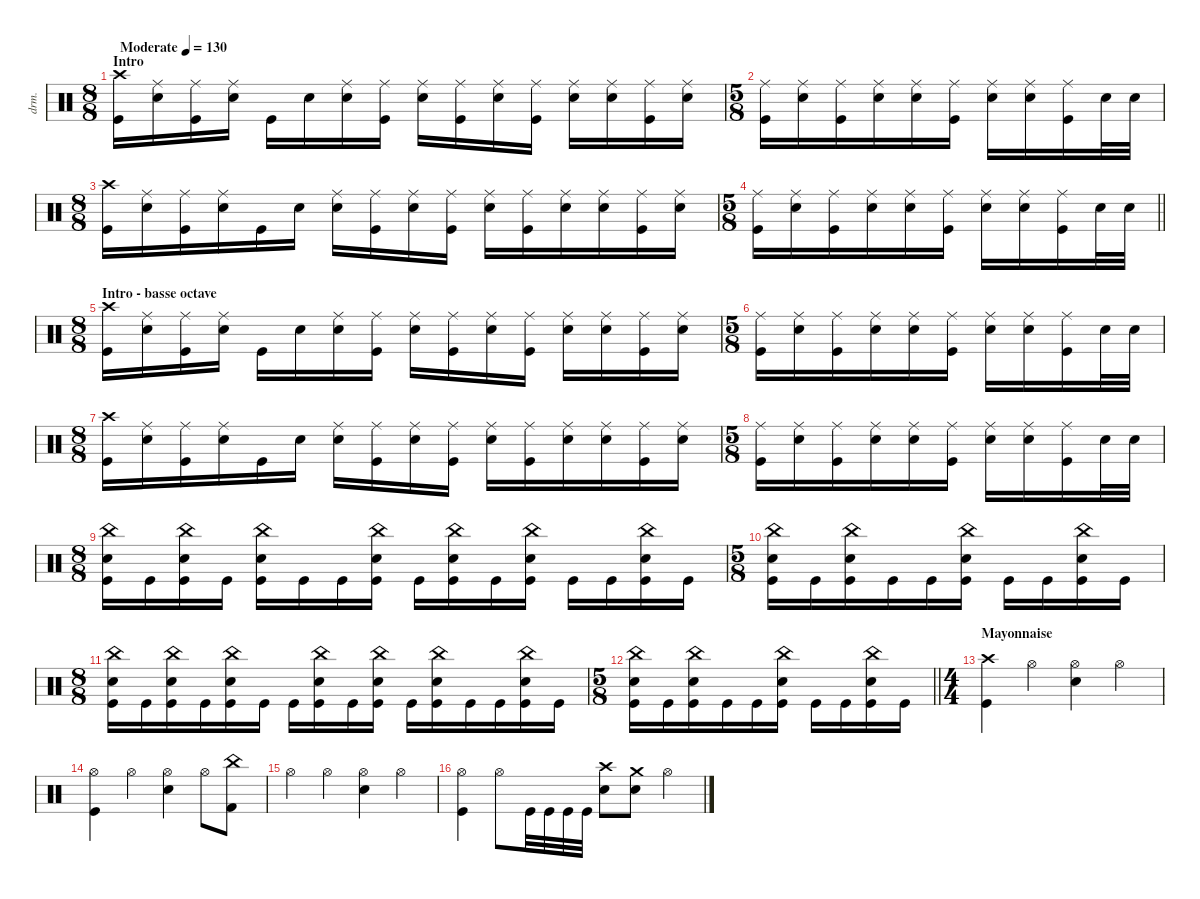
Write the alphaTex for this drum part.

\defaultSystemsLayout 4
\hideDynamics
\bracketExtendMode nobrackets
\otherSystemsTrackNameOrientation horizontal
\track ("Manouche" "drm.") {instrument percussion}
\staff {score}
\articulation defaults
\ts (8 8)
\beaming (8 2 2 2 2)
\section ("" "Intro")
\tempo (130 "Moderate")
\clef neutral
\ks c
("Crash high (hit)" "Kick (hit)").16{dy f} ("Snare (hit) 2" "Ride (middle)").16 ("Kick (hit)" "Ride (middle)").16 ("Snare (hit) 2" "Ride (middle)").16 "Kick (hit)".16 "Snare (hit) 2".16 ("Snare (hit) 2" "Ride (middle)").16 ("Kick (hit)" "Ride (middle)").16 ("Snare (hit) 2" "Ride (middle)").16 ("Kick (hit)" "Ride (middle)").16 ("Snare (hit) 2" "Ride (middle)").16 ("Ride (middle)" "Kick (hit)").16 ("Snare (hit) 2" "Ride (middle)").16 ("Snare (hit) 2" "Ride (middle)").16 ("Kick (hit)" "Ride (middle)").16 ("Snare (hit) 2" "Ride (middle)").16 |
\ts (5 8)
\beaming (8 3 2)
("Kick (hit)" "Ride (middle)").16 ("Snare (hit) 2" "Ride (middle)").16 ("Kick (hit)" "Ride (middle)").16 ("Snare (hit) 2" "Ride (middle)").16 ("Snare (hit) 2" "Ride (middle)").16 ("Kick (hit)" "Ride (middle)").16 ("Snare (hit) 2" "Ride (middle)").16 ("Snare (hit) 2" "Ride (middle)").16 ("Kick (hit)" "Ride (middle)").16 "Snare (hit) 2".32 "Snare (hit) 2".32 |
\ts (8 8)
\beaming (8 3 2 3)
("Crash high (hit)" "Kick (hit)").16 ("Snare (hit) 2" "Ride (middle)").16 ("Kick (hit)" "Ride (middle)").16 ("Snare (hit) 2" "Ride (middle)").16 "Kick (hit)".16 "Snare (hit) 2".16 ("Snare (hit) 2" "Ride (middle)").16 ("Kick (hit)" "Ride (middle)").16 ("Snare (hit) 2" "Ride (middle)").16 ("Kick (hit)" "Ride (middle)").16 ("Snare (hit) 2" "Ride (middle)").16 ("Ride (middle)" "Kick (hit)").16 ("Snare (hit) 2" "Ride (middle)").16 ("Snare (hit) 2" "Ride (middle)").16 ("Kick (hit)" "Ride (middle)").16 ("Snare (hit) 2" "Ride (middle)").16 |
\ts (5 8)
\beaming (8 3 2)
\barLineRight lightlight
("Kick (hit)" "Ride (middle)").16 ("Snare (hit) 2" "Ride (middle)").16 ("Kick (hit)" "Ride (middle)").16 ("Snare (hit) 2" "Ride (middle)").16 ("Snare (hit) 2" "Ride (middle)").16 ("Kick (hit)" "Ride (middle)").16 ("Snare (hit) 2" "Ride (middle)").16 ("Snare (hit) 2" "Ride (middle)").16 ("Kick (hit)" "Ride (middle)").16 "Snare (hit) 2".32 "Snare (hit) 2".32 |
\ts (8 8)
\beaming (8 2 2 2 2)
\section ("" "Intro - basse octave")
("Crash high (hit)" "Kick (hit)").16 ("Snare (hit) 2" "Ride (middle)").16 ("Kick (hit)" "Ride (middle)").16 ("Snare (hit) 2" "Ride (middle)").16 "Kick (hit)".16 "Snare (hit) 2".16 ("Snare (hit) 2" "Ride (middle)").16 ("Kick (hit)" "Ride (middle)").16 ("Snare (hit) 2" "Ride (middle)").16 ("Kick (hit)" "Ride (middle)").16 ("Snare (hit) 2" "Ride (middle)").16 ("Ride (middle)" "Kick (hit)").16 ("Snare (hit) 2" "Ride (middle)").16 ("Snare (hit) 2" "Ride (middle)").16 ("Kick (hit)" "Ride (middle)").16 ("Snare (hit) 2" "Ride (middle)").16 |
\ts (5 8)
\beaming (8 3 2)
("Kick (hit)" "Ride (middle)").16 ("Snare (hit) 2" "Ride (middle)").16 ("Kick (hit)" "Ride (middle)").16 ("Snare (hit) 2" "Ride (middle)").16 ("Snare (hit) 2" "Ride (middle)").16 ("Kick (hit)" "Ride (middle)").16 ("Snare (hit) 2" "Ride (middle)").16 ("Snare (hit) 2" "Ride (middle)").16 ("Kick (hit)" "Ride (middle)").16 "Snare (hit) 2".32 "Snare (hit) 2".32 |
\ts (8 8)
\beaming (8 3 2 3)
("Crash high (hit)" "Kick (hit)").16 ("Snare (hit) 2" "Ride (middle)").16 ("Kick (hit)" "Ride (middle)").16 ("Snare (hit) 2" "Ride (middle)").16 "Kick (hit)".16 "Snare (hit) 2".16 ("Snare (hit) 2" "Ride (middle)").16 ("Kick (hit)" "Ride (middle)").16 ("Snare (hit) 2" "Ride (middle)").16 ("Kick (hit)" "Ride (middle)").16 ("Snare (hit) 2" "Ride (middle)").16 ("Ride (middle)" "Kick (hit)").16 ("Snare (hit) 2" "Ride (middle)").16 ("Snare (hit) 2" "Ride (middle)").16 ("Kick (hit)" "Ride (middle)").16 ("Snare (hit) 2" "Ride (middle)").16 |
\ts (5 8)
\beaming (8 3 2)
("Kick (hit)" "Ride (middle)").16 ("Snare (hit) 2" "Ride (middle)").16 ("Kick (hit)" "Ride (middle)").16 ("Snare (hit) 2" "Ride (middle)").16 ("Snare (hit) 2" "Ride (middle)").16 ("Kick (hit)" "Ride (middle)").16 ("Snare (hit) 2" "Ride (middle)").16 ("Snare (hit) 2" "Ride (middle)").16 ("Kick (hit)" "Ride (middle)").16 "Snare (hit) 2".32 "Snare (hit) 2".32 |
\ts (8 8)
\beaming (8 2 2 2 2)
("Snare (hit) 2" "China (hit)" "Kick (hit)").16 "Kick (hit)".16 ("Kick (hit)" "Snare (hit) 2" "China (hit)").16 "Kick (hit)".16 ("Kick (hit)" "Snare (hit) 2" "China (hit)").16 "Kick (hit)".16 "Kick (hit)".16 ("Kick (hit)" "Snare (hit) 2" "China (hit)").16 "Kick (hit)".16 ("Kick (hit)" "Snare (hit) 2" "China (hit)").16 "Kick (hit)".16 ("Kick (hit)" "Snare (hit) 2" "China (hit)").16 "Kick (hit)".16 "Kick (hit)".16 ("Kick (hit)" "Snare (hit) 2" "China (hit)").16 "Kick (hit)".16 |
\ts (5 8)
\beaming (8 3 2)
("Kick (hit)" "Snare (hit) 2" "China (hit)").16 "Kick (hit)".16 ("Kick (hit)" "Snare (hit) 2" "China (hit)").16 "Kick (hit)".16 "Kick (hit)".16 ("Kick (hit)" "Snare (hit) 2" "China (hit)").16 "Kick (hit)".16 "Kick (hit)".16 ("Kick (hit)" "Snare (hit) 2" "China (hit)").16 "Kick (hit)".16 |
\ts (8 8)
\beaming (8 3 2 3)
("Snare (hit) 2" "China (hit)" "Kick (hit)").16 "Kick (hit)".16 ("Kick (hit)" "Snare (hit) 2" "China (hit)").16 "Kick (hit)".16 ("Kick (hit)" "Snare (hit) 2" "China (hit)").16 "Kick (hit)".16 "Kick (hit)".16 ("Kick (hit)" "Snare (hit) 2" "China (hit)").16 "Kick (hit)".16 ("Kick (hit)" "Snare (hit) 2" "China (hit)").16 "Kick (hit)".16 ("Kick (hit)" "Snare (hit) 2" "China (hit)").16 "Kick (hit)".16 "Kick (hit)".16 ("Kick (hit)" "Snare (hit) 2" "China (hit)").16 "Kick (hit)".16 |
\ts (5 8)
\beaming (8 3 2)
\barLineRight lightlight
("Kick (hit)" "Snare (hit) 2" "China (hit)").16 "Kick (hit)".16 ("Kick (hit)" "Snare (hit) 2" "China (hit)").16 "Kick (hit)".16 "Kick (hit)".16 ("Kick (hit)" "Snare (hit) 2" "China (hit)").16 "Kick (hit)".16 "Kick (hit)".16 ("Kick (hit)" "Snare (hit) 2" "China (hit)").16 "Kick (hit)".16 |
\ts (4 4)
\beaming (8 2 2 2 2)
\section ("" "Mayonnaise")
("Crash high (hit)" "Kick (hit)").4 "Hi-Hat (open)".4 ("Hi-Hat (open)" "Snare (hit) 2").4 "Hi-Hat (open)".4 |
("Hi-Hat (open)" "Kick (hit)").4 "Hi-Hat (open)".4 ("Hi-Hat (open)" "Snare (hit) 2").4 "Hi-Hat (open)".8 ("China (hit)" "Kick (hit) 2").8 |
"Hi-Hat (open)".4 "Hi-Hat (open)".4 ("Hi-Hat (open)" "Snare (hit) 2").4 "Hi-Hat (open)".4 |
("Hi-Hat (open)" "Kick (hit)").4 "Hi-Hat (open)".8 "Kick (hit)".32 "Kick (hit)".32 "Kick (hit)".32 "Kick (hit)".32 ("Snare (hit) 2" "Crash high (hit)").8 ("Crash medium (hit)" "Snare (hit) 2").8 "Hi-Hat (open)".4
